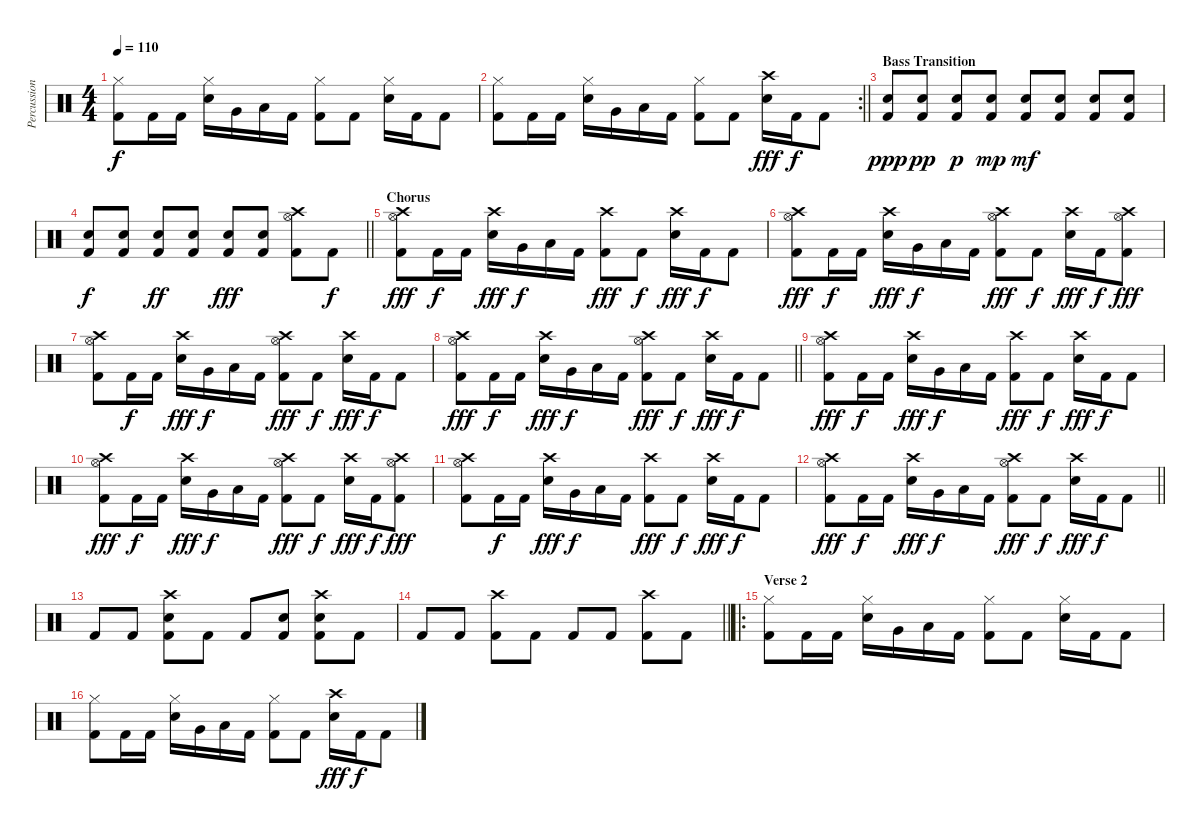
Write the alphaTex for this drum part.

\track ("Percussion" "Percussion") {instrument percussion}
\staff {score}
\articulation defaults
\ts (4 4)
\tempo 110
\clef neutral
\ks c
("Hi-Hat (closed)" "Kick (hit) 2").8{dy f} "Kick (hit) 2".16 "Kick (hit) 2".16 ("Hi-Hat (closed)" "Snare (hit) 2").16 "Very Low Tom (hit)".16 "Low Tom (hit)".16 "Kick (hit) 2".16 ("Hi-Hat (closed)" "Kick (hit) 2").8 "Kick (hit) 2".8 ("Hi-Hat (closed)" "Snare (hit) 2").16 "Kick (hit) 2".16 "Kick (hit) 2".8 |
\rc 2
\barLineRight lightlight
("Hi-Hat (closed)" "Kick (hit) 2").8 "Kick (hit) 2".16 "Kick (hit) 2".16 ("Hi-Hat (closed)" "Snare (hit) 2").16 "Very Low Tom (hit)".16 "Low Tom (hit)".16 "Kick (hit) 2".16 ("Hi-Hat (closed)" "Kick (hit) 2").8 "Kick (hit) 2".8 ("Crash high (hit)" "Snare (hit) 2").16{dy fff} "Kick (hit) 2".16{dy f} "Kick (hit) 2".8 |
\section ("" "Bass Transition")
("Snare (hit) 2" "Kick (hit) 2").8{dy ppp} ("Snare (hit) 2" "Kick (hit) 2").8{dy pp} ("Snare (hit) 2" "Kick (hit) 2").8{dy p} ("Snare (hit) 2" "Kick (hit) 2").8{dy mp} ("Snare (hit) 2" "Kick (hit) 2").8{dy mf} ("Snare (hit) 2" "Kick (hit) 2").8 ("Snare (hit) 2" "Kick (hit) 2").8 ("Snare (hit) 2" "Kick (hit) 2").8 |
\barLineRight lightlight
("Snare (hit) 2" "Kick (hit) 2").8{dy f} ("Snare (hit) 2" "Kick (hit) 2").8 ("Snare (hit) 2" "Kick (hit) 2").8{dy ff} ("Snare (hit) 2" "Kick (hit) 2").8 ("Snare (hit) 2" "Kick (hit) 2").8{dy fff} ("Snare (hit) 2" "Kick (hit) 2").8 ("Crash high (hit)" "Hi-Hat (open)" "Kick (hit) 2").8 "Kick (hit) 2".8{dy f} |
\section ("" "Chorus")
("Crash high (hit)" "Hi-Hat (open)" "Kick (hit) 2").8{dy fff} "Kick (hit) 2".16{dy f} "Kick (hit) 2".16 ("Crash high (hit)" "Snare (hit) 2").16{dy fff} "Very Low Tom (hit)".16{dy f} "Low Tom (hit)".16 "Kick (hit) 2".16 ("Crash high (hit)" "Kick (hit) 2").8{dy fff} "Kick (hit) 2".8{dy f} ("Crash high (hit)" "Snare (hit) 2").16{dy fff} "Kick (hit) 2".16{dy f} "Kick (hit) 2".8 |
("Crash high (hit)" "Hi-Hat (open)" "Kick (hit) 2").8{dy fff} "Kick (hit) 2".16{dy f} "Kick (hit) 2".16 ("Crash high (hit)" "Snare (hit) 2").16{dy fff} "Very Low Tom (hit)".16{dy f} "Low Tom (hit)".16 "Kick (hit) 2".16 ("Crash high (hit)" "Hi-Hat (open)" "Kick (hit) 2").8{dy fff} "Kick (hit) 2".8{dy f} ("Crash high (hit)" "Snare (hit) 2").16{dy fff} "Kick (hit) 2".16{dy f} ("Crash high (hit)" "Hi-Hat (open)" "Kick (hit) 2").8{dy fff} |
("Crash high (hit)" "Hi-Hat (open)" "Kick (hit) 2").8 "Kick (hit) 2".16{dy f} "Kick (hit) 2".16 ("Crash high (hit)" "Snare (hit) 2").16{dy fff} "Very Low Tom (hit)".16{dy f} "Low Tom (hit)".16 "Kick (hit) 2".16 ("Crash high (hit)" "Hi-Hat (open)" "Kick (hit) 2").8{dy fff} "Kick (hit) 2".8{dy f} ("Crash high (hit)" "Snare (hit) 2").16{dy fff} "Kick (hit) 2".16{dy f} "Kick (hit) 2".8 |
\barLineRight lightlight
("Crash high (hit)" "Hi-Hat (open)" "Kick (hit) 2").8{dy fff} "Kick (hit) 2".16{dy f} "Kick (hit) 2".16 ("Crash high (hit)" "Snare (hit) 2").16{dy fff} "Very Low Tom (hit)".16{dy f} "Low Tom (hit)".16 "Kick (hit) 2".16 ("Crash high (hit)" "Hi-Hat (open)" "Kick (hit) 2").8{dy fff} "Kick (hit) 2".8{dy f} ("Crash high (hit)" "Snare (hit) 2").16{dy fff} "Kick (hit) 2".16{dy f} "Kick (hit) 2".8 |
("Crash high (hit)" "Hi-Hat (open)" "Kick (hit) 2").8{dy fff} "Kick (hit) 2".16{dy f} "Kick (hit) 2".16 ("Crash high (hit)" "Snare (hit) 2").16{dy fff} "Very Low Tom (hit)".16{dy f} "Low Tom (hit)".16 "Kick (hit) 2".16 ("Crash high (hit)" "Kick (hit) 2").8{dy fff} "Kick (hit) 2".8{dy f} ("Crash high (hit)" "Snare (hit) 2").16{dy fff} "Kick (hit) 2".16{dy f} "Kick (hit) 2".8 |
("Crash high (hit)" "Hi-Hat (open)" "Kick (hit) 2").8{dy fff} "Kick (hit) 2".16{dy f} "Kick (hit) 2".16 ("Crash high (hit)" "Snare (hit) 2").16{dy fff} "Very Low Tom (hit)".16{dy f} "Low Tom (hit)".16 "Kick (hit) 2".16 ("Crash high (hit)" "Hi-Hat (open)" "Kick (hit) 2").8{dy fff} "Kick (hit) 2".8{dy f} ("Crash high (hit)" "Snare (hit) 2").16{dy fff} "Kick (hit) 2".16{dy f} ("Crash high (hit)" "Hi-Hat (open)" "Kick (hit) 2").8{dy fff} |
("Crash high (hit)" "Hi-Hat (open)" "Kick (hit) 2").8 "Kick (hit) 2".16{dy f} "Kick (hit) 2".16 ("Crash high (hit)" "Snare (hit) 2").16{dy fff} "Very Low Tom (hit)".16{dy f} "Low Tom (hit)".16 "Kick (hit) 2".16 ("Crash high (hit)" "Kick (hit) 2").8{dy fff} "Kick (hit) 2".8{dy f} ("Crash high (hit)" "Snare (hit) 2").16{dy fff} "Kick (hit) 2".16{dy f} "Kick (hit) 2".8 |
\barLineRight lightlight
("Crash high (hit)" "Hi-Hat (open)" "Kick (hit) 2").8{dy fff} "Kick (hit) 2".16{dy f} "Kick (hit) 2".16 ("Crash high (hit)" "Snare (hit) 2").16{dy fff} "Very Low Tom (hit)".16{dy f} "Low Tom (hit)".16 "Kick (hit) 2".16 ("Crash high (hit)" "Hi-Hat (open)" "Kick (hit) 2").8{dy fff} "Kick (hit) 2".8{dy f} ("Crash high (hit)" "Snare (hit) 2").16{dy fff} "Kick (hit) 2".16{dy f} "Kick (hit) 2".8 |
"Kick (hit) 2".8 "Kick (hit) 2".8 ("Crash high (hit)" "Snare (hit) 2" "Kick (hit) 2").8 "Kick (hit) 2".8 "Kick (hit) 2".8 ("Snare (hit) 2" "Kick (hit) 2").8 ("Crash high (hit)" "Snare (hit) 2" "Kick (hit) 2").8 "Kick (hit) 2".8 |
\barLineRight lightlight "Kick (hit) 2".8 "Kick (hit) 2".8
("Crash high (hit)" "Kick (hit) 2").8 "Kick (hit) 2".8 "Kick (hit) 2".8 "Kick (hit) 2".8 ("Crash high (hit)" "Kick (hit) 2").8 "Kick (hit) 2".8 |
\ro
\section ("" "Verse 2")
("Hi-Hat (closed)" "Kick (hit) 2").8 "Kick (hit) 2".16 "Kick (hit) 2".16 ("Hi-Hat (closed)" "Snare (hit) 2").16 "Very Low Tom (hit)".16 "Low Tom (hit)".16 "Kick (hit) 2".16 ("Hi-Hat (closed)" "Kick (hit) 2").8 "Kick (hit) 2".8 ("Hi-Hat (closed)" "Snare (hit) 2").16 "Kick (hit) 2".16 "Kick (hit) 2".8 |
("Hi-Hat (closed)" "Kick (hit) 2").8 "Kick (hit) 2".16 "Kick (hit) 2".16 ("Hi-Hat (closed)" "Snare (hit) 2").16 "Very Low Tom (hit)".16 "Low Tom (hit)".16 "Kick (hit) 2".16 ("Hi-Hat (closed)" "Kick (hit) 2").8 "Kick (hit) 2".8 ("Crash high (hit)" "Snare (hit) 2").16{dy fff} "Kick (hit) 2".16{dy f} "Kick (hit) 2".8
